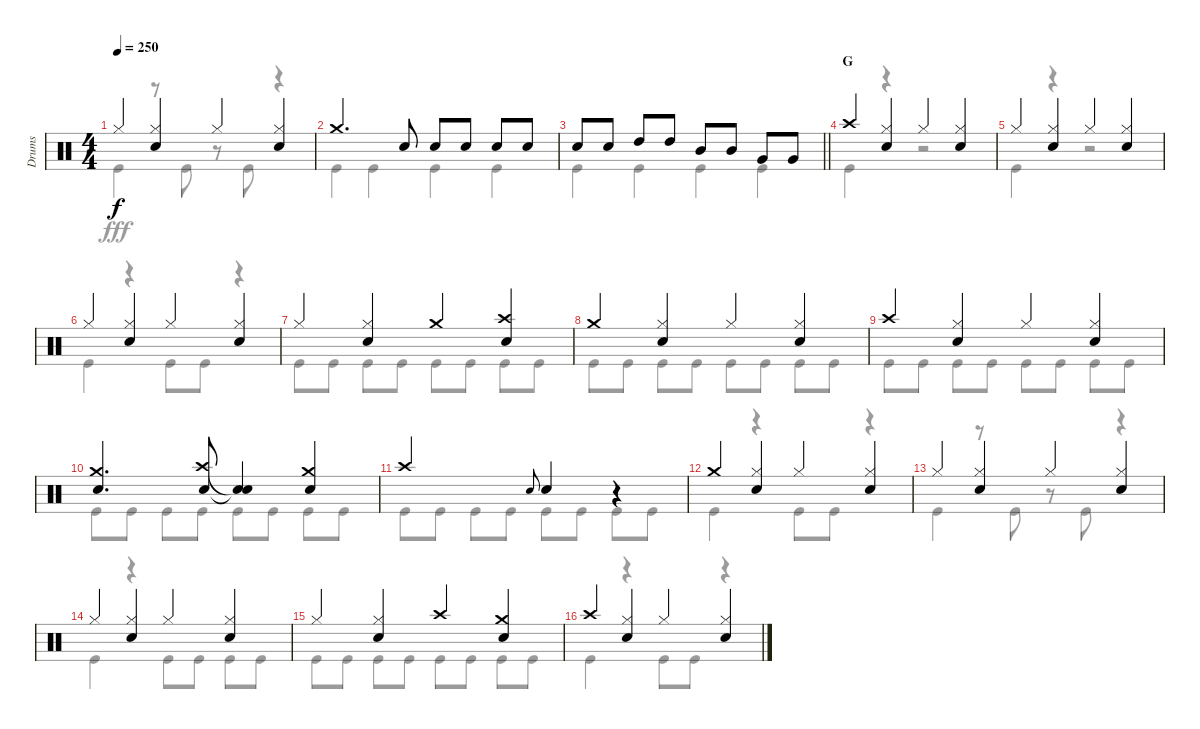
\track ("Drums" "Drums") {instrument percussion}
\staff {score}
\articulation defaults
\voice
\ts (4 4)
\tempo 250
\clef neutral
\ks c "Hi-Hat (closed)".4{dy f}
("Hi-Hat (closed)" "Snare (hit) 2").4 "Hi-Hat (closed)".4 ("Hi-Hat (closed)" "Snare (hit) 2").4 |
"Crash medium (hit)".4{d} "Snare (hit) 2".8 "Snare (hit) 2".8 "Snare (hit) 2".8 "Snare (hit) 2".8 "Snare (hit) 2".8 |
\barLineRight lightlight "Snare (hit) 2".8 "Snare (hit) 2".8 "High Tom (hit)".8 "High Tom (hit)".8 "Mid Tom (hit)".8 "Mid Tom (hit)".8 "Very Low Tom (hit)".8 "Very Low Tom (hit)".8
|
\section ("" "G")
"Crash high (hit)".4 ("Hi-Hat (closed)" "Snare (hit) 2").4 "Hi-Hat (closed)".4 ("Hi-Hat (closed)" "Snare (hit) 2").4 |
"Hi-Hat (closed)".4 ("Hi-Hat (closed)" "Snare (hit) 2").4 "Hi-Hat (closed)".4 ("Hi-Hat (closed)" "Snare (hit) 2").4 |
"Hi-Hat (closed)".4 ("Hi-Hat (closed)" "Snare (hit) 2").4 "Hi-Hat (closed)".4 ("Hi-Hat (closed)" "Snare (hit) 2").4 |
"Hi-Hat (closed)".4 ("Hi-Hat (closed)" "Snare (hit) 2").4 "Crash medium (hit)".4 ("Crash high (hit)" "Snare (hit) 2").4 |
"Crash medium (hit)".4 ("Hi-Hat (closed)" "Snare (hit) 2").4 "Hi-Hat (closed)".4 ("Hi-Hat (closed)" "Snare (hit) 2").4 |
"Crash high (hit)".4 ("Hi-Hat (closed)" "Snare (hit) 2").4 "Hi-Hat (closed)".4 ("Hi-Hat (closed)" "Snare (hit) 2").4 |
("Crash medium (hit)" "Snare (hit) 2").4{d} ("Crash high (hit)" "Snare (hit) 2").8 ("Snare (hit)"{t} "Snare (hit) 2"{t}).4 ("Crash medium (hit)" "Snare (hit) 2").4 |
"Crash high (hit)".2 "Snare (hit) 2".8{gr onbeat} "Snare (hit) 2".4 r.4 |
"Crash medium (hit)".4 ("Hi-Hat (closed)" "Snare (hit) 2").4 "Hi-Hat (closed)".4 ("Hi-Hat (closed)" "Snare (hit) 2").4 |
"Hi-Hat (closed)".4 ("Hi-Hat (closed)" "Snare (hit) 2").4 "Hi-Hat (closed)".4 ("Hi-Hat (closed)" "Snare (hit) 2").4 |
"Hi-Hat (closed)".4 ("Hi-Hat (closed)" "Snare (hit) 2").4 "Hi-Hat (closed)".4 ("Hi-Hat (closed)" "Snare (hit) 2").4 |
"Hi-Hat (closed)".4 ("Hi-Hat (closed)" "Snare (hit) 2").4 "Crash high (hit)".4 ("Crash medium (hit)" "Snare (hit) 2").4 |
"Crash high (hit)".4 ("Hi-Hat (closed)" "Snare (hit) 2").4 "Hi-Hat (closed)".4 ("Hi-Hat (closed)" "Snare (hit) 2").4
\voice
\clef neutral
\ottava regular
\simile none
\ks c "Kick (hit)".4{dy fff}
r.8 "Kick (hit)".8 r.8 "Kick (hit)".8 r.4 |
"Kick (hit)".4 "Kick (hit)".4 "Kick (hit)".4 "Kick (hit)".4 |
\barLineRight lightlight "Kick (hit)".4 "Kick (hit)".4 "Kick (hit)".4 "Kick (hit)".4
|
"Kick (hit)".4 r.4 r.2 |
"Kick (hit)".4 r.4 r.2 |
"Kick (hit)".4 r.4 "Kick (hit)".8 "Kick (hit)".8 r.4 |
"Kick (hit)".8 "Kick (hit)".8 "Kick (hit)".8 "Kick (hit)".8 "Kick (hit)".8 "Kick (hit)".8 "Kick (hit)".8 "Kick (hit)".8 |
"Kick (hit)".8 "Kick (hit)".8 "Kick (hit)".8 "Kick (hit)".8 "Kick (hit)".8 "Kick (hit)".8 "Kick (hit)".8 "Kick (hit)".8 |
"Kick (hit)".8 "Kick (hit)".8 "Kick (hit)".8 "Kick (hit)".8 "Kick (hit)".8 "Kick (hit)".8 "Kick (hit)".8 "Kick (hit)".8 |
"Kick (hit)".8 "Kick (hit)".8 "Kick (hit)".8 "Kick (hit)".8 "Kick (hit)".8 "Kick (hit)".8 "Kick (hit)".8 "Kick (hit)".8 |
"Kick (hit)".8 "Kick (hit)".8 "Kick (hit)".8 "Kick (hit)".8 "Kick (hit)".8 "Kick (hit)".8 "Kick (hit)".8 "Kick (hit)".8 |
"Kick (hit)".4 r.4 "Kick (hit)".8 "Kick (hit)".8 r.4 |
"Kick (hit)".4 r.8 "Kick (hit)".8 r.8 "Kick (hit)".8 r.4 |
"Kick (hit)".4 r.4 "Kick (hit)".8 "Kick (hit)".8 "Kick (hit)".8 "Kick (hit)".8 |
"Kick (hit)".8 "Kick (hit)".8 "Kick (hit)".8 "Kick (hit)".8 "Kick (hit)".8 "Kick (hit)".8 "Kick (hit)".8 "Kick (hit)".8 |
"Kick (hit)".4 r.4 "Kick (hit)".8 "Kick (hit)".8 r.4
